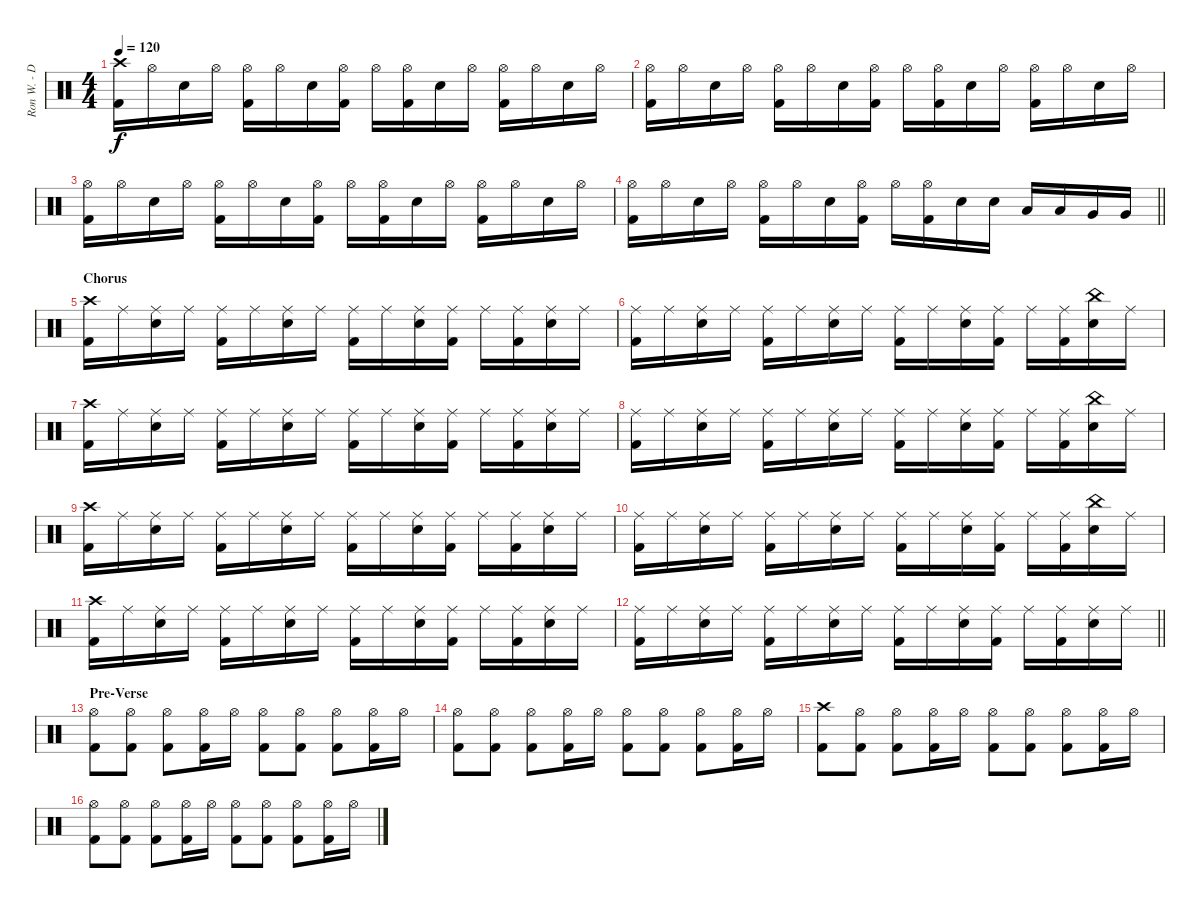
\track ("Ron W. - Drums" "Ron W. - D") {instrument percussion}
\staff {score}
\articulation defaults
\ts (4 4)
\tempo 120
\clef neutral
\ks c
("Crash high (hit)" "Kick (hit) 2").16{dy f} "Hi-Hat (open)".16 "Snare (hit) 2".16 "Hi-Hat (open)".16 ("Hi-Hat (open)" "Kick (hit) 2").16 "Hi-Hat (open)".16 "Snare (hit) 2".16 ("Hi-Hat (open)" "Kick (hit) 2").16 "Hi-Hat (open)".16 ("Hi-Hat (open)" "Kick (hit) 2").16 "Snare (hit) 2".16 "Hi-Hat (open)".16 ("Hi-Hat (open)" "Kick (hit) 2").16 "Hi-Hat (open)".16 "Snare (hit) 2".16 "Hi-Hat (open)".16 |
("Hi-Hat (open)" "Kick (hit) 2").16 "Hi-Hat (open)".16 "Snare (hit) 2".16 "Hi-Hat (open)".16 ("Hi-Hat (open)" "Kick (hit) 2").16 "Hi-Hat (open)".16 "Snare (hit) 2".16 ("Hi-Hat (open)" "Kick (hit) 2").16 "Hi-Hat (open)".16 ("Hi-Hat (open)" "Kick (hit) 2").16 "Snare (hit) 2".16 "Hi-Hat (open)".16 ("Hi-Hat (open)" "Kick (hit) 2").16 "Hi-Hat (open)".16 "Snare (hit) 2".16 "Hi-Hat (open)".16 |
("Hi-Hat (open)" "Kick (hit) 2").16 "Hi-Hat (open)".16 "Snare (hit) 2".16 "Hi-Hat (open)".16 ("Hi-Hat (open)" "Kick (hit) 2").16 "Hi-Hat (open)".16 "Snare (hit) 2".16 ("Hi-Hat (open)" "Kick (hit) 2").16 "Hi-Hat (open)".16 ("Hi-Hat (open)" "Kick (hit) 2").16 "Snare (hit) 2".16 "Hi-Hat (open)".16 ("Hi-Hat (open)" "Kick (hit) 2").16 "Hi-Hat (open)".16 "Snare (hit) 2".16 "Hi-Hat (open)".16 |
\barLineRight lightlight
("Hi-Hat (open)" "Kick (hit) 2").16 "Hi-Hat (open)".16 "Snare (hit) 2".16 "Hi-Hat (open)".16 ("Hi-Hat (open)" "Kick (hit) 2").16 "Hi-Hat (open)".16 "Snare (hit) 2".16 ("Hi-Hat (open)" "Kick (hit) 2").16 "Hi-Hat (open)".16 ("Hi-Hat (open)" "Kick (hit) 2").16 "Snare (hit) 2".16 "Snare (hit) 2".16 "Low Tom (hit)".16 "Low Tom (hit)".16 "Very Low Tom (hit)".16 "Very Low Tom (hit)".16 |
\section ("" "Chorus")
("Crash high (hit)" "Kick (hit) 2").16 "Ride (middle)".16 ("Ride (middle)" "Snare (hit) 2").16 "Ride (middle)".16 ("Ride (middle)" "Kick (hit) 2").16 "Ride (middle)".16 ("Ride (middle)" "Snare (hit) 2").16 "Ride (middle)".16 ("Ride (middle)" "Kick (hit) 2").16 "Ride (middle)".16 ("Ride (middle)" "Snare (hit) 2").16 ("Ride (middle)" "Kick (hit) 2").16 "Ride (middle)".16 ("Ride (middle)" "Kick (hit) 2").16 ("Ride (middle)" "Snare (hit) 2").16 "Ride (middle)".16 |
("Ride (middle)" "Kick (hit) 2").16 "Ride (middle)".16 ("Ride (middle)" "Snare (hit) 2").16 "Ride (middle)".16 ("Ride (middle)" "Kick (hit) 2").16 "Ride (middle)".16 ("Ride (middle)" "Snare (hit) 2").16 "Ride (middle)".16 ("Ride (middle)" "Kick (hit) 2").16 "Ride (middle)".16 ("Ride (middle)" "Snare (hit) 2").16 ("Ride (middle)" "Kick (hit) 2").16 "Ride (middle)".16 ("Ride (middle)" "Kick (hit) 2").16 ("China (hit)" "Snare (hit) 2").16 "Ride (middle)".16 |
("Crash high (hit)" "Kick (hit) 2").16 "Ride (middle)".16 ("Ride (middle)" "Snare (hit) 2").16 "Ride (middle)".16 ("Ride (middle)" "Kick (hit) 2").16 "Ride (middle)".16 ("Ride (middle)" "Snare (hit) 2").16 "Ride (middle)".16 ("Ride (middle)" "Kick (hit) 2").16 "Ride (middle)".16 ("Ride (middle)" "Snare (hit) 2").16 ("Ride (middle)" "Kick (hit) 2").16 "Ride (middle)".16 ("Ride (middle)" "Kick (hit) 2").16 ("Ride (middle)" "Snare (hit) 2").16 "Ride (middle)".16 |
("Ride (middle)" "Kick (hit) 2").16 "Ride (middle)".16 ("Ride (middle)" "Snare (hit) 2").16 "Ride (middle)".16 ("Ride (middle)" "Kick (hit) 2").16 "Ride (middle)".16 ("Ride (middle)" "Snare (hit) 2").16 "Ride (middle)".16 ("Ride (middle)" "Kick (hit) 2").16 "Ride (middle)".16 ("Ride (middle)" "Snare (hit) 2").16 ("Ride (middle)" "Kick (hit) 2").16 "Ride (middle)".16 ("Ride (middle)" "Kick (hit) 2").16 ("China (hit)" "Snare (hit) 2").16 "Ride (middle)".16 |
("Crash high (hit)" "Kick (hit) 2").16 "Ride (middle)".16 ("Ride (middle)" "Snare (hit) 2").16 "Ride (middle)".16 ("Ride (middle)" "Kick (hit) 2").16 "Ride (middle)".16 ("Ride (middle)" "Snare (hit) 2").16 "Ride (middle)".16 ("Ride (middle)" "Kick (hit) 2").16 "Ride (middle)".16 ("Ride (middle)" "Snare (hit) 2").16 ("Ride (middle)" "Kick (hit) 2").16 "Ride (middle)".16 ("Ride (middle)" "Kick (hit) 2").16 ("Ride (middle)" "Snare (hit) 2").16 "Ride (middle)".16 |
("Ride (middle)" "Kick (hit) 2").16 "Ride (middle)".16 ("Ride (middle)" "Snare (hit) 2").16 "Ride (middle)".16 ("Ride (middle)" "Kick (hit) 2").16 "Ride (middle)".16 ("Ride (middle)" "Snare (hit) 2").16 "Ride (middle)".16 ("Ride (middle)" "Kick (hit) 2").16 "Ride (middle)".16 ("Ride (middle)" "Snare (hit) 2").16 ("Ride (middle)" "Kick (hit) 2").16 "Ride (middle)".16 ("Ride (middle)" "Kick (hit) 2").16 ("China (hit)" "Snare (hit) 2").16 "Ride (middle)".16 |
("Crash high (hit)" "Kick (hit) 2").16 "Ride (middle)".16 ("Ride (middle)" "Snare (hit) 2").16 "Ride (middle)".16 ("Ride (middle)" "Kick (hit) 2").16 "Ride (middle)".16 ("Ride (middle)" "Snare (hit) 2").16 "Ride (middle)".16 ("Ride (middle)" "Kick (hit) 2").16 "Ride (middle)".16 ("Ride (middle)" "Snare (hit) 2").16 ("Ride (middle)" "Kick (hit) 2").16 "Ride (middle)".16 ("Ride (middle)" "Kick (hit) 2").16 ("Ride (middle)" "Snare (hit) 2").16 "Ride (middle)".16 |
\barLineRight lightlight
("Ride (middle)" "Kick (hit) 2").16 "Ride (middle)".16 ("Ride (middle)" "Snare (hit) 2").16 "Ride (middle)".16 ("Ride (middle)" "Kick (hit) 2").16 "Ride (middle)".16 ("Ride (middle)" "Snare (hit) 2").16 "Ride (middle)".16 ("Ride (middle)" "Kick (hit) 2").16 "Ride (middle)".16 ("Ride (middle)" "Snare (hit) 2").16 ("Ride (middle)" "Kick (hit) 2").16 "Ride (middle)".16 ("Ride (middle)" "Kick (hit) 2").16 ("Ride (middle)" "Snare (hit) 2").16 "Ride (middle)".16 |
\section ("" "Pre-Verse")
("Hi-Hat (open)" "Kick (hit) 2").8 ("Hi-Hat (open)" "Kick (hit) 2").8 ("Hi-Hat (open)" "Kick (hit) 2").8 ("Hi-Hat (open)" "Kick (hit) 2").16 "Hi-Hat (open)".16 ("Hi-Hat (open)" "Kick (hit) 2").8 ("Hi-Hat (open)" "Kick (hit) 2").8 ("Hi-Hat (open)" "Kick (hit) 2").8 ("Hi-Hat (open)" "Kick (hit) 2").16 "Hi-Hat (open)".16 |
("Hi-Hat (open)" "Kick (hit) 2").8 ("Hi-Hat (open)" "Kick (hit) 2").8 ("Hi-Hat (open)" "Kick (hit) 2").8 ("Hi-Hat (open)" "Kick (hit) 2").16 "Hi-Hat (open)".16 ("Hi-Hat (open)" "Kick (hit) 2").8 ("Hi-Hat (open)" "Kick (hit) 2").8 ("Hi-Hat (open)" "Kick (hit) 2").8 ("Hi-Hat (open)" "Kick (hit) 2").16 "Hi-Hat (open)".16 |
("Crash high (hit)" "Kick (hit) 2").8 ("Hi-Hat (open)" "Kick (hit) 2").8 ("Hi-Hat (open)" "Kick (hit) 2").8 ("Hi-Hat (open)" "Kick (hit) 2").16 "Hi-Hat (open)".16 ("Hi-Hat (open)" "Kick (hit) 2").8 ("Hi-Hat (open)" "Kick (hit) 2").8 ("Hi-Hat (open)" "Kick (hit) 2").8 ("Hi-Hat (open)" "Kick (hit) 2").16 "Hi-Hat (open)".16 |
("Hi-Hat (open)" "Kick (hit) 2").8 ("Hi-Hat (open)" "Kick (hit) 2").8 ("Hi-Hat (open)" "Kick (hit) 2").8 ("Hi-Hat (open)" "Kick (hit) 2").16 "Hi-Hat (open)".16 ("Hi-Hat (open)" "Kick (hit) 2").8 ("Hi-Hat (open)" "Kick (hit) 2").8 ("Hi-Hat (open)" "Kick (hit) 2").8 ("Hi-Hat (open)" "Kick (hit) 2").16 "Hi-Hat (open)".16
